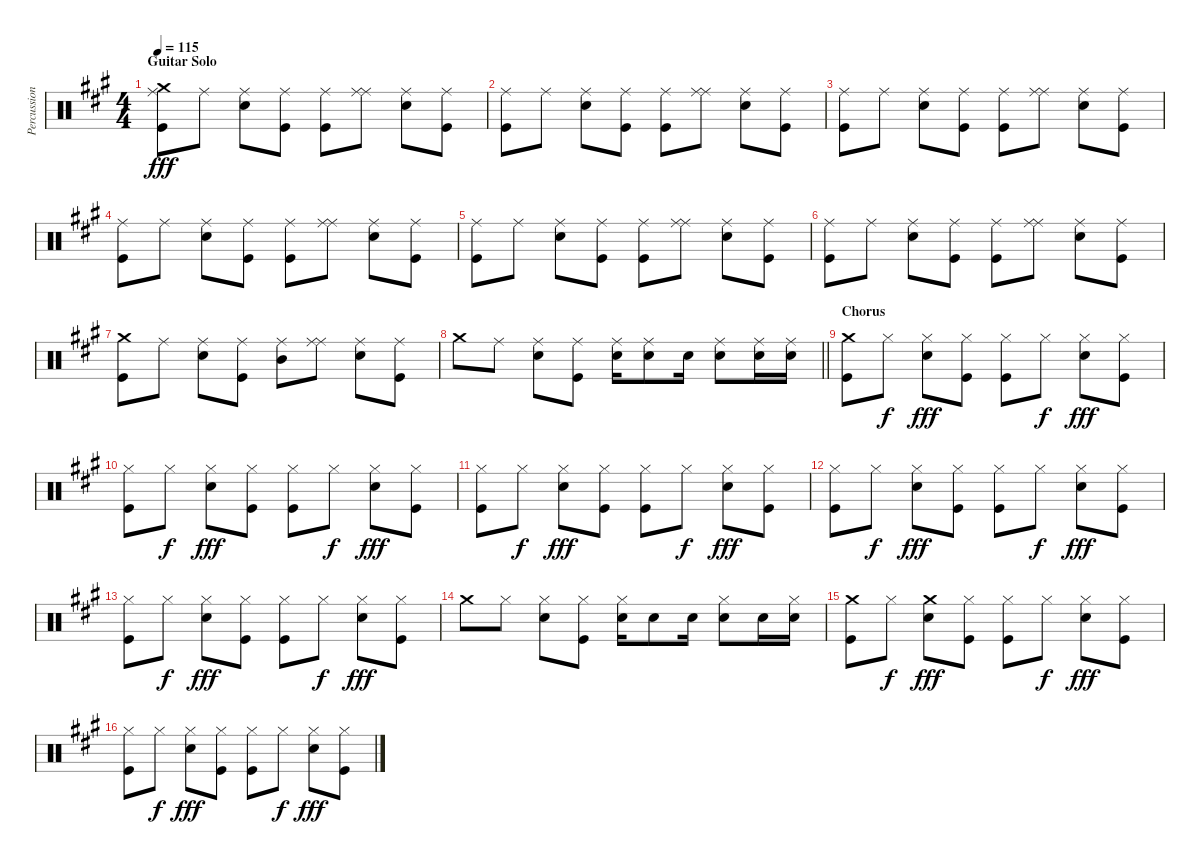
\track ("Percussion" "Percussion") {instrument percussion}
\staff {score}
\articulation defaults
\ts (4 4)
\section ("" "Guitar Solo")
\tempo 115
\clef neutral
\ks a
("Crash medium (hit)" "Kick (hit)" "Ride (middle)").8{dy fff} "Ride (middle)".8 ("Electric Snare (hit)" "Ride (middle)").8 ("Kick (hit)" "Ride (middle)").8 ("Kick (hit)" "Ride (middle)").8 ("Ride (middle)" "Ride (middle)").8 ("Electric Snare (hit)" "Ride (middle)").8 ("Kick (hit)" "Ride (middle)").8 |
("Kick (hit)" "Ride (middle)").8 "Ride (middle)".8 ("Electric Snare (hit)" "Ride (middle)").8 ("Kick (hit)" "Ride (middle)").8 ("Kick (hit)" "Ride (middle)").8 ("Ride (middle)" "Ride (middle)").8 ("Electric Snare (hit)" "Ride (middle)").8 ("Kick (hit)" "Ride (middle)").8 |
("Kick (hit)" "Ride (middle)").8 "Ride (middle)".8 ("Electric Snare (hit)" "Ride (middle)").8 ("Kick (hit)" "Ride (middle)").8 ("Kick (hit)" "Ride (middle)").8 ("Ride (middle)" "Ride (middle)").8 ("Electric Snare (hit)" "Ride (middle)").8 ("Kick (hit)" "Ride (middle)").8 |
("Kick (hit)" "Ride (middle)").8 "Ride (middle)".8 ("Electric Snare (hit)" "Ride (middle)").8 ("Kick (hit)" "Ride (middle)").8 ("Kick (hit)" "Ride (middle)").8 ("Ride (middle)" "Ride (middle)").8 ("Electric Snare (hit)" "Ride (middle)").8 ("Kick (hit)" "Ride (middle)").8 |
("Kick (hit)" "Ride (middle)").8 "Ride (middle)".8 ("Electric Snare (hit)" "Ride (middle)").8 ("Kick (hit)" "Ride (middle)").8 ("Kick (hit)" "Ride (middle)").8 ("Ride (middle)" "Ride (middle)").8 ("Electric Snare (hit)" "Ride (middle)").8 ("Kick (hit)" "Ride (middle)").8 |
("Kick (hit)" "Ride (middle)").8 "Ride (middle)".8 ("Electric Snare (hit)" "Ride (middle)").8 ("Kick (hit)" "Ride (middle)").8 ("Kick (hit)" "Ride (middle)").8 ("Ride (middle)" "Ride (middle)").8 ("Electric Snare (hit)" "Ride (middle)").8 ("Kick (hit)" "Ride (middle)").8 |
("Kick (hit)" "Crash medium (hit)").8 "Ride (middle)".8 ("Electric Snare (hit)" "Ride (middle)").8 ("Kick (hit)" "Ride (middle)").8 ("Mid Tom (hit)" "Ride (middle)").8 ("Ride (middle)" "Ride (middle)").8 ("Electric Snare (hit)" "Ride (middle)").8 ("Kick (hit)" "Ride (middle)").8 |
\barLineRight lightlight "Crash medium (hit)".8 "Ride (middle)".8
("Electric Snare (hit)" "Ride (middle)").8 ("Kick (hit)" "Ride (middle)").8 ("Electric Snare (hit)" "Ride (middle)").16 ("Electric Snare (hit)" "Ride (middle)").8 "Electric Snare (hit)".16 ("Electric Snare (hit)" "Ride (middle)").8 ("Electric Snare (hit)" "Ride (middle)").16 ("Electric Snare (hit)" "Ride (middle)").16 |
\section ("" "Chorus")
("Kick (hit)" "Crash medium (hit)").8 "Hi-Hat (closed)".8{dy f} ("Electric Snare (hit)" "Hi-Hat (closed)").8{dy fff} ("Kick (hit)" "Hi-Hat (closed)").8 ("Kick (hit)" "Hi-Hat (closed)").8 "Hi-Hat (closed)".8{dy f} ("Electric Snare (hit)" "Hi-Hat (closed)").8{dy fff} ("Kick (hit)" "Hi-Hat (closed)").8 |
("Kick (hit)" "Hi-Hat (closed)").8 "Hi-Hat (closed)".8{dy f} ("Electric Snare (hit)" "Hi-Hat (closed)").8{dy fff} ("Kick (hit)" "Hi-Hat (closed)").8 ("Kick (hit)" "Hi-Hat (closed)").8 "Hi-Hat (closed)".8{dy f} ("Electric Snare (hit)" "Hi-Hat (closed)").8{dy fff} ("Kick (hit)" "Hi-Hat (closed)").8 |
("Kick (hit)" "Hi-Hat (closed)").8 "Hi-Hat (closed)".8{dy f} ("Electric Snare (hit)" "Hi-Hat (closed)").8{dy fff} ("Kick (hit)" "Hi-Hat (closed)").8 ("Kick (hit)" "Hi-Hat (closed)").8 "Hi-Hat (closed)".8{dy f} ("Electric Snare (hit)" "Hi-Hat (closed)").8{dy fff} ("Kick (hit)" "Hi-Hat (closed)").8 |
("Kick (hit)" "Hi-Hat (closed)").8 "Hi-Hat (closed)".8{dy f} ("Electric Snare (hit)" "Hi-Hat (closed)").8{dy fff} ("Kick (hit)" "Hi-Hat (closed)").8 ("Kick (hit)" "Hi-Hat (closed)").8 "Hi-Hat (closed)".8{dy f} ("Electric Snare (hit)" "Hi-Hat (closed)").8{dy fff} ("Kick (hit)" "Hi-Hat (closed)").8 |
("Kick (hit)" "Hi-Hat (closed)").8 "Hi-Hat (closed)".8{dy f} ("Electric Snare (hit)" "Hi-Hat (closed)").8{dy fff} ("Kick (hit)" "Hi-Hat (closed)").8 ("Kick (hit)" "Hi-Hat (closed)").8 "Hi-Hat (closed)".8{dy f} ("Electric Snare (hit)" "Hi-Hat (closed)").8{dy fff} ("Kick (hit)" "Hi-Hat (closed)").8 |
"Crash medium (hit)".8 "Hi-Hat (closed)".8 ("Electric Snare (hit)" "Hi-Hat (closed)").8 ("Kick (hit)" "Hi-Hat (closed)").8 ("Electric Snare (hit)" "Hi-Hat (closed)").16 "Electric Snare (hit)".8 "Electric Snare (hit)".16 ("Electric Snare (hit)" "Hi-Hat (closed)").8 "Electric Snare (hit)".16 ("Electric Snare (hit)" "Hi-Hat (closed)").16 |
("Kick (hit)" "Crash medium (hit)").8 "Hi-Hat (closed)".8{dy f} ("Electric Snare (hit)" "Crash medium (hit)").8{dy fff} ("Kick (hit)" "Hi-Hat (closed)").8 ("Kick (hit)" "Hi-Hat (closed)").8 "Hi-Hat (closed)".8{dy f} ("Electric Snare (hit)" "Hi-Hat (closed)").8{dy fff} ("Kick (hit)" "Hi-Hat (closed)").8 |
("Kick (hit)" "Hi-Hat (closed)").8 "Hi-Hat (closed)".8{dy f} ("Electric Snare (hit)" "Hi-Hat (closed)").8{dy fff} ("Kick (hit)" "Hi-Hat (closed)").8 ("Kick (hit)" "Hi-Hat (closed)").8 "Hi-Hat (closed)".8{dy f} ("Electric Snare (hit)" "Hi-Hat (closed)").8{dy fff} ("Kick (hit)" "Hi-Hat (closed)").8
